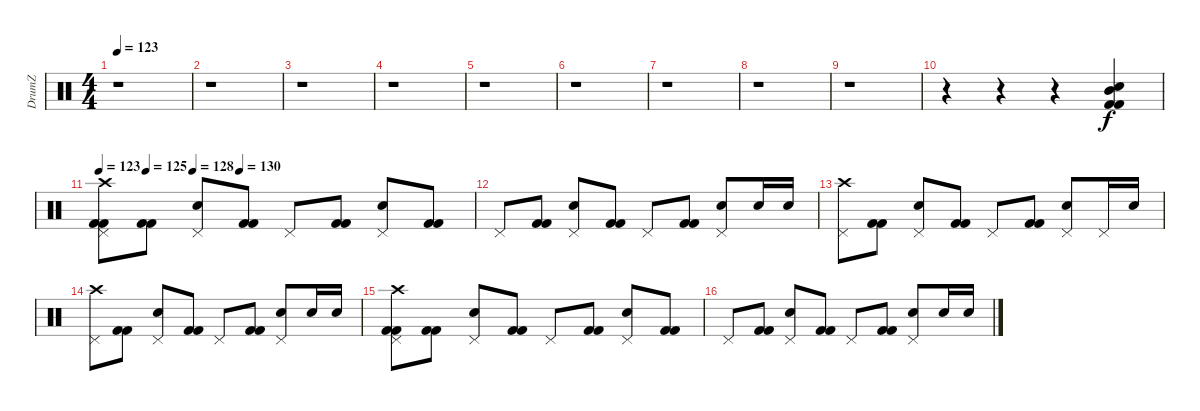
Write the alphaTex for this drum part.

\track ("DrumZ" "DrumZ") {instrument percussion}
\staff {score}
\articulation defaults
\ts (4 4)
\tempo 123
\clef neutral
\ks c
r.1{dy f} |
r.1 |
r.1 |
r.1 |
r.1 |
r.1 |
r.1 |
r.1 |
r.1 |
r.4 r.4 r.4 ("Mid Tom (hit)" "Snare (hit) 2" "Kick (hit) 2" "Kick (hit) 2").4 |
\tempo 123
\tempo (125 0.125)
\tempo (128 0.25)
\tempo (130 0.375)
("Pedal Hi-Hat (hit)" "Crash high (hit)" "Kick (hit) 2" "Kick (hit) 2").8 ("Kick (hit) 2" "Kick (hit) 2").8 ("Pedal Hi-Hat (hit)" "Snare (hit) 2").8 ("Kick (hit) 2" "Kick (hit) 2").8 "Pedal Hi-Hat (hit)".8 ("Kick (hit) 2" "Kick (hit) 2").8 ("Pedal Hi-Hat (hit)" "Snare (hit) 2").8 ("Kick (hit) 2" "Kick (hit) 2").8 |
"Pedal Hi-Hat (hit)".8 ("Kick (hit) 2" "Kick (hit) 2").8 ("Pedal Hi-Hat (hit)" "Snare (hit) 2").8 ("Kick (hit) 2" "Kick (hit) 2").8 "Pedal Hi-Hat (hit)".8 ("Kick (hit) 2" "Kick (hit) 2").8 ("Pedal Hi-Hat (hit)" "Snare (hit) 2").8 "Snare (hit) 2".16 "Snare (hit) 2".16 |
("Pedal Hi-Hat (hit)" "Crash high (hit)").8 ("Kick (hit) 2" "Kick (hit) 2").8 ("Pedal Hi-Hat (hit)" "Snare (hit) 2").8 ("Kick (hit) 2" "Kick (hit) 2").8 "Pedal Hi-Hat (hit)".8 ("Kick (hit) 2" "Kick (hit) 2").8 ("Pedal Hi-Hat (hit)" "Snare (hit) 2").8 "Pedal Hi-Hat (hit)".16 "Snare (hit) 2".16 |
("Pedal Hi-Hat (hit)" "Crash high (hit)").8 ("Kick (hit) 2" "Kick (hit) 2").8 ("Pedal Hi-Hat (hit)" "Snare (hit) 2").8 ("Kick (hit) 2" "Kick (hit) 2").8 "Pedal Hi-Hat (hit)".8 ("Kick (hit) 2" "Kick (hit) 2").8 ("Pedal Hi-Hat (hit)" "Snare (hit) 2").8 "Snare (hit) 2".16 "Snare (hit) 2".16 |
("Pedal Hi-Hat (hit)" "Crash high (hit)" "Kick (hit) 2" "Kick (hit) 2").8 ("Kick (hit) 2" "Kick (hit) 2").8 ("Pedal Hi-Hat (hit)" "Snare (hit) 2").8 ("Kick (hit) 2" "Kick (hit) 2").8 "Pedal Hi-Hat (hit)".8 ("Kick (hit) 2" "Kick (hit) 2").8 ("Pedal Hi-Hat (hit)" "Snare (hit) 2").8 ("Kick (hit) 2" "Kick (hit) 2").8 |
"Pedal Hi-Hat (hit)".8 ("Kick (hit) 2" "Kick (hit) 2").8 ("Pedal Hi-Hat (hit)" "Snare (hit) 2").8 ("Kick (hit) 2" "Kick (hit) 2").8 "Pedal Hi-Hat (hit)".8 ("Kick (hit) 2" "Kick (hit) 2").8 ("Pedal Hi-Hat (hit)" "Snare (hit) 2").8 "Snare (hit) 2".16 "Snare (hit) 2".16
